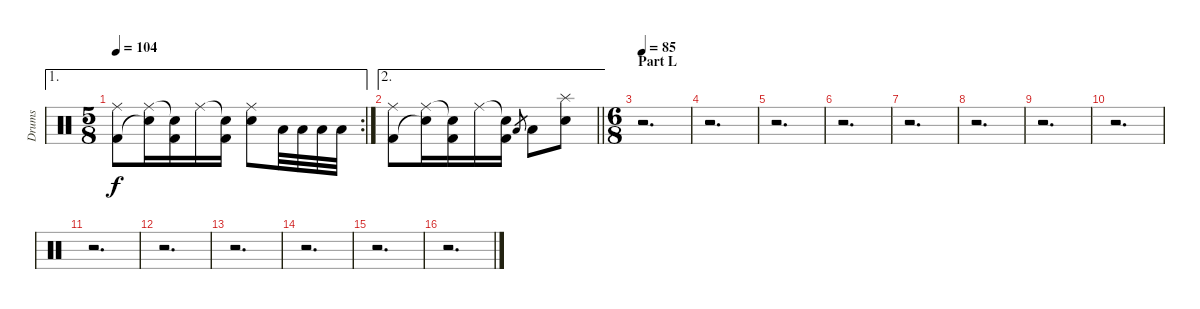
\track ("Drums" "Drums") {instrument percussion}
\staff {score}
\articulation defaults
\ae 1
\rc 2
\ts (5 8)
\tempo 104
\clef neutral
\ks c
("Ride (middle)" "Kick (hit) 2").8{dy f} ("Ride (middle)" "Snare (hit)"{t}).16 ("Snare (hit)"{t} "Kick (hit) 2").16 "Ride (middle)".16 ("Snare (hit)"{t} "Kick (hit) 2").16 ("Ride (middle)" "Electric Snare (hit)").8 "Low Tom (hit)".32 "Low Tom (hit)".32 "Low Tom (hit)".32 "Low Tom (hit)".32 |
\ae 2
\barLineRight lightlight
("Ride (middle)" "Kick (hit) 2").8 ("Ride (middle)" "Snare (hit)"{t}).16 ("Snare (hit)"{t} "Kick (hit) 2").16 "Ride (middle)".16 ("Snare (hit)"{t} "Kick (hit) 2").16 "Low Tom (hit)".8{gr} "Low Tom (hit)".8 ("Splash (hit)" "Electric Snare (hit)").8 |
\ts (6 8)
\section ("" "Part L")
\tempo 85
r.2{d} |
r.2{d} |
r.2{d} |
r.2{d} |
r.2{d} |
r.2{d} |
r.2{d} |
r.2{d} |
r.2{d} |
r.2{d} |
r.2{d} |
r.2{d} |
r.2{d} |
r.2{d}
